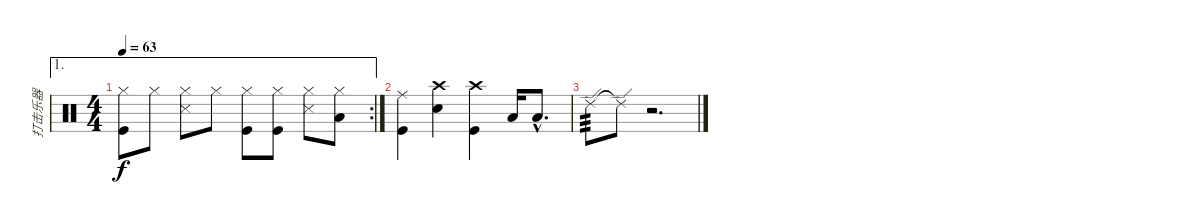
\track ("打击乐器" "打击乐器") {instrument percussion}
\staff {score}
\articulation defaults
\ae 1
\rc 2
\ts (4 4)
\tempo 63
\clef neutral
\ks aminor
("Hi-Hat (closed)" "Kick (hit)").8{dy f} "Hi-Hat (closed)".8 ("Hi-Hat (closed)" "Snare (side stick) 3").8 "Hi-Hat (closed)".8 ("Hi-Hat (closed)" "Kick (hit)").8 ("Hi-Hat (closed)" "Kick (hit)").8 ("Hi-Hat (closed)" "Snare (side stick) 3").8 ("Hi-Hat (closed)" "Low Floor Tom (hit)").8 |
("Ride (middle)" "Kick (hit)").4 ("Crash high (hit)" "Electric Snare (hit)").4 ("Crash high (hit)" "Kick (hit)").4 "Low Tom (hit)".16 "Low Floor Tom (hit)"{hac}.8{d} |
"Ride (edge) 2".8{tp 3} "Ride (edge) 2"{t}.8 r.2{d}
